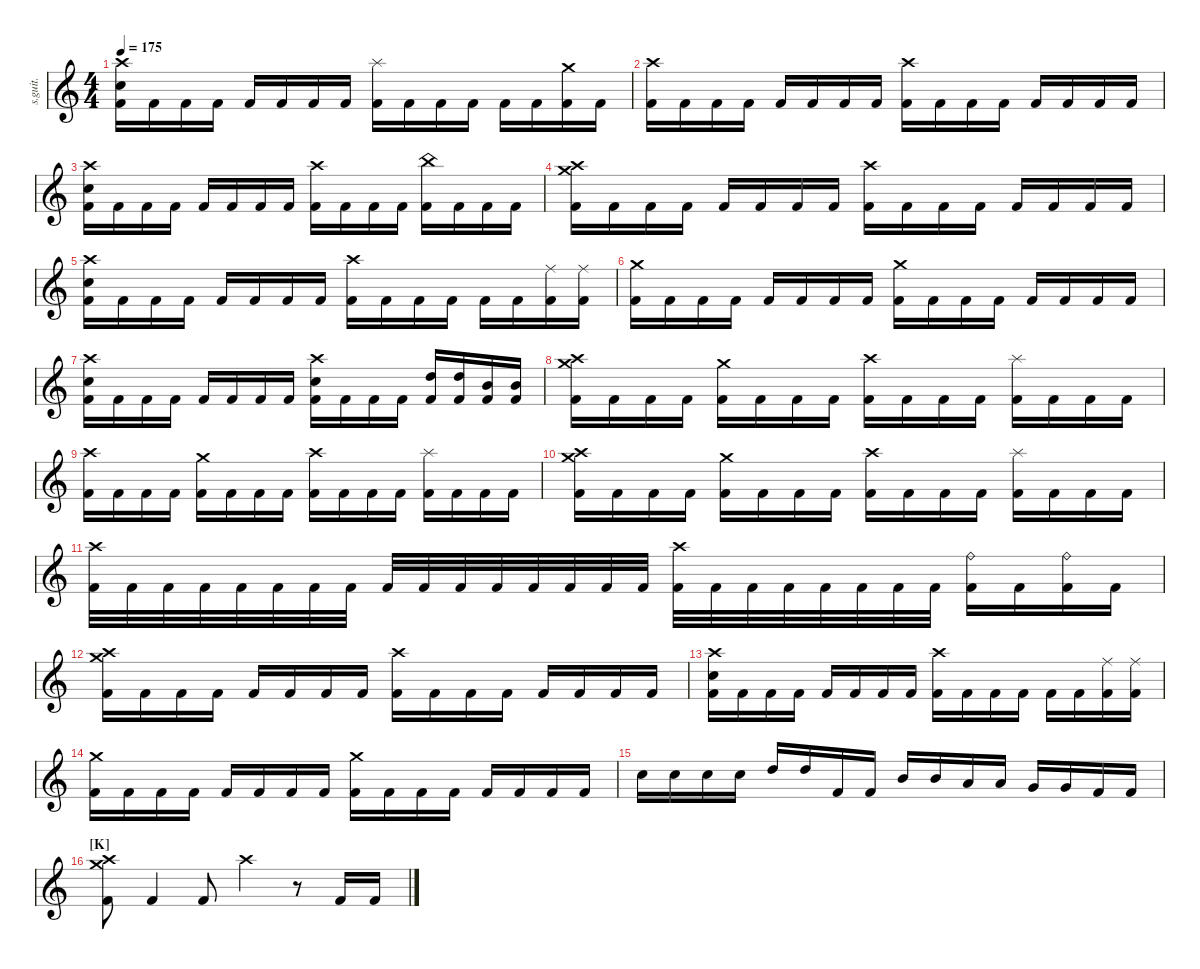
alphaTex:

\defaultSystemsLayout 4
\hideDynamics
\bracketExtendMode nobrackets
\track ("" "s.guit.") {instrument percussion}
\staff {score}
\articulation defaults
\ts (4 4)
\tempo 175
\clef g2
\ks c
("Crash high (hit)" "Snare (hit) 2" "Kick (hit) 2").16{dy ff} "Kick (hit) 2".16 "Kick (hit) 2".16 "Kick (hit) 2".16 "Kick (hit) 2".16 "Kick (hit) 2".16 "Kick (hit) 2".16 "Kick (hit) 2".16 ("Splash (hit)" "Kick (hit) 2").16 "Kick (hit) 2".16 "Kick (hit) 2".16 "Kick (hit) 2".16 "Kick (hit) 2".16 "Kick (hit) 2".16 ("Crash medium (hit)" "Kick (hit) 2").16 "Kick (hit) 2".16 |
("Crash high (hit)" "Kick (hit) 2").16 "Kick (hit) 2".16 "Kick (hit) 2".16 "Kick (hit) 2".16 "Kick (hit) 2".16 "Kick (hit) 2".16 "Kick (hit) 2".16 "Kick (hit) 2".16 ("Crash high (hit)" "Kick (hit) 2").16 "Kick (hit) 2".16 "Kick (hit) 2".16 "Kick (hit) 2".16 "Kick (hit) 2".16 "Kick (hit) 2".16 "Kick (hit) 2".16 "Kick (hit) 2".16 |
("Crash high (hit)" "Snare (hit) 2" "Kick (hit) 2").16 "Kick (hit) 2".16 "Kick (hit) 2".16 "Kick (hit) 2".16 "Kick (hit) 2".16 "Kick (hit) 2".16 "Kick (hit) 2".16 "Kick (hit) 2".16 ("Crash high (hit)" "Kick (hit) 2").16 "Kick (hit) 2".16 "Kick (hit) 2".16 "Kick (hit) 2".16 ("China (hit)" "Kick (hit) 2").16 "Kick (hit) 2".16 "Kick (hit) 2".16 "Kick (hit) 2".16 |
("Crash medium (hit)" "Crash high (hit)" "Kick (hit) 2").16 "Kick (hit) 2".16 "Kick (hit) 2".16 "Kick (hit) 2".16 "Kick (hit) 2".16 "Kick (hit) 2".16 "Kick (hit) 2".16 "Kick (hit) 2".16 ("Crash high (hit)" "Kick (hit) 2").16 "Kick (hit) 2".16 "Kick (hit) 2".16 "Kick (hit) 2".16 "Kick (hit) 2".16 "Kick (hit) 2".16 "Kick (hit) 2".16 "Kick (hit) 2".16 |
("Crash high (hit)" "Snare (hit) 2" "Kick (hit) 2").16 "Kick (hit) 2".16 "Kick (hit) 2".16 "Kick (hit) 2".16 "Kick (hit) 2".16 "Kick (hit) 2".16 "Kick (hit) 2".16 "Kick (hit) 2".16 ("Crash high (hit)" "Kick (hit) 2").16 "Kick (hit) 2".16 "Kick (hit) 2".16 "Kick (hit) 2".16 "Kick (hit) 2".16 "Kick (hit) 2".16 ("Ride (middle)" "Kick (hit) 2").16 ("Ride (middle)" "Kick (hit) 2").16 |
("Crash medium (hit)" "Kick (hit) 2").16 "Kick (hit) 2".16 "Kick (hit) 2".16 "Kick (hit) 2".16 "Kick (hit) 2".16 "Kick (hit) 2".16 "Kick (hit) 2".16 "Kick (hit) 2".16 ("Crash medium (hit)" "Kick (hit) 2").16 "Kick (hit) 2".16 "Kick (hit) 2".16 "Kick (hit) 2".16 "Kick (hit) 2".16 "Kick (hit) 2".16 "Kick (hit) 2".16 "Kick (hit) 2".16 |
("Crash high (hit)" "Snare (hit) 2" "Kick (hit) 2").16 "Kick (hit) 2".16 "Kick (hit) 2".16 "Kick (hit) 2".16 "Kick (hit) 2".16 "Kick (hit) 2".16 "Kick (hit) 2".16 "Kick (hit) 2".16 ("Crash high (hit)" "Snare (hit) 2" "Kick (hit) 2").16 "Kick (hit) 2".16 "Kick (hit) 2".16 "Kick (hit) 2".16 ("High Tom (hit)" "Kick (hit) 2").16 ("High Tom (hit)" "Kick (hit) 2").16 ("Mid Tom (hit)" "Kick (hit) 2").16 ("Mid Tom (hit)" "Kick (hit) 2").16 |
("Crash medium (hit)" "Crash high (hit)" "Kick (hit) 2").16 "Kick (hit) 2".16 "Kick (hit) 2".16 "Kick (hit) 2".16 ("Crash medium (hit)" "Kick (hit) 2").16 "Kick (hit) 2".16 "Kick (hit) 2".16 "Kick (hit) 2".16 ("Crash high (hit)" "Kick (hit) 2").16 "Kick (hit) 2".16 "Kick (hit) 2".16 "Kick (hit) 2".16 ("Splash (hit)" "Kick (hit) 2").16 "Kick (hit) 2".16 "Kick (hit) 2".16 "Kick (hit) 2".16 |
("Crash high (hit)" "Kick (hit) 2").16 "Kick (hit) 2".16 "Kick (hit) 2".16 "Kick (hit) 2".16 ("Crash medium (hit)" "Kick (hit) 2").16 "Kick (hit) 2".16 "Kick (hit) 2".16 "Kick (hit) 2".16 ("Crash high (hit)" "Kick (hit) 2").16 "Kick (hit) 2".16 "Kick (hit) 2".16 "Kick (hit) 2".16 ("Splash (hit)" "Kick (hit) 2").16 "Kick (hit) 2".16 "Kick (hit) 2".16 "Kick (hit) 2".16 |
("Crash high (hit)" "Crash medium (hit)" "Kick (hit) 2").16 "Kick (hit) 2".16 "Kick (hit) 2".16 "Kick (hit) 2".16 ("Crash medium (hit)" "Kick (hit) 2").16 "Kick (hit) 2".16 "Kick (hit) 2".16 "Kick (hit) 2".16 ("Crash high (hit)" "Kick (hit) 2").16 "Kick (hit) 2".16 "Kick (hit) 2".16 "Kick (hit) 2".16 ("Splash (hit)" "Kick (hit) 2").16 "Kick (hit) 2".16 "Kick (hit) 2".16 "Kick (hit) 2".16 |
("Crash high (hit)" "Kick (hit) 2").32 "Kick (hit) 2".32 "Kick (hit) 2".32 "Kick (hit) 2".32 "Kick (hit) 2".32 "Kick (hit) 2".32 "Kick (hit) 2".32 "Kick (hit) 2".32 "Kick (hit) 2".32 "Kick (hit) 2".32 "Kick (hit) 2".32 "Kick (hit) 2".32 "Kick (hit) 2".32 "Kick (hit) 2".32 "Kick (hit) 2".32 "Kick (hit) 2".32 ("Crash high (hit)" "Kick (hit) 2").32 "Kick (hit) 2".32 "Kick (hit) 2".32 "Kick (hit) 2".32 "Kick (hit) 2".32 "Kick (hit) 2".32 "Kick (hit) 2".32 "Kick (hit) 2".32 ("Ride (bell)" "Kick (hit) 2").16 "Kick (hit) 2".16 ("Ride (bell)" "Kick (hit) 2").16 "Kick (hit) 2".16 |
("Crash medium (hit)" "Crash high (hit)" "Kick (hit) 2").16 "Kick (hit) 2".16 "Kick (hit) 2".16 "Kick (hit) 2".16 "Kick (hit) 2".16 "Kick (hit) 2".16 "Kick (hit) 2".16 "Kick (hit) 2".16 ("Crash high (hit)" "Kick (hit) 2").16 "Kick (hit) 2".16 "Kick (hit) 2".16 "Kick (hit) 2".16 "Kick (hit) 2".16 "Kick (hit) 2".16 "Kick (hit) 2".16 "Kick (hit) 2".16 |
("Crash high (hit)" "Snare (hit) 2" "Kick (hit) 2").16 "Kick (hit) 2".16 "Kick (hit) 2".16 "Kick (hit) 2".16 "Kick (hit) 2".16 "Kick (hit) 2".16 "Kick (hit) 2".16 "Kick (hit) 2".16 ("Crash high (hit)" "Kick (hit) 2").16 "Kick (hit) 2".16 "Kick (hit) 2".16 "Kick (hit) 2".16 "Kick (hit) 2".16 "Kick (hit) 2".16 ("Ride (middle)" "Kick (hit) 2").16 ("Ride (middle)" "Kick (hit) 2").16 |
("Crash medium (hit)" "Kick (hit) 2").16 "Kick (hit) 2".16 "Kick (hit) 2".16 "Kick (hit) 2".16 "Kick (hit) 2".16 "Kick (hit) 2".16 "Kick (hit) 2".16 "Kick (hit) 2".16 ("Crash medium (hit)" "Kick (hit) 2").16 "Kick (hit) 2".16 "Kick (hit) 2".16 "Kick (hit) 2".16 "Kick (hit) 2".16 "Kick (hit) 2".16 "Kick (hit) 2".16 "Kick (hit) 2".16 |
"Snare (hit) 2".16 "Snare (hit) 2".16 "Snare (hit) 2".16 "Snare (hit) 2".16 "High Tom (hit)".16 "High Tom (hit)".16 "Kick (hit) 2".16 "Kick (hit) 2".16 "Mid Tom (hit)".16 "Mid Tom (hit)".16 "Low Tom (hit)".16 "Low Tom (hit)".16 "Very Low Tom (hit)".16 "Very Low Tom (hit)".16 "Kick (hit) 2".16 "Kick (hit) 2".16 |
\section ("K" "")
("Crash medium (hit)" "Crash high (hit)" "Kick (hit) 2").8 "Kick (hit) 2".4 "Kick (hit) 2".8 "Crash high (hit)".4 r.8 "Kick (hit) 2".16 "Kick (hit) 2".16
